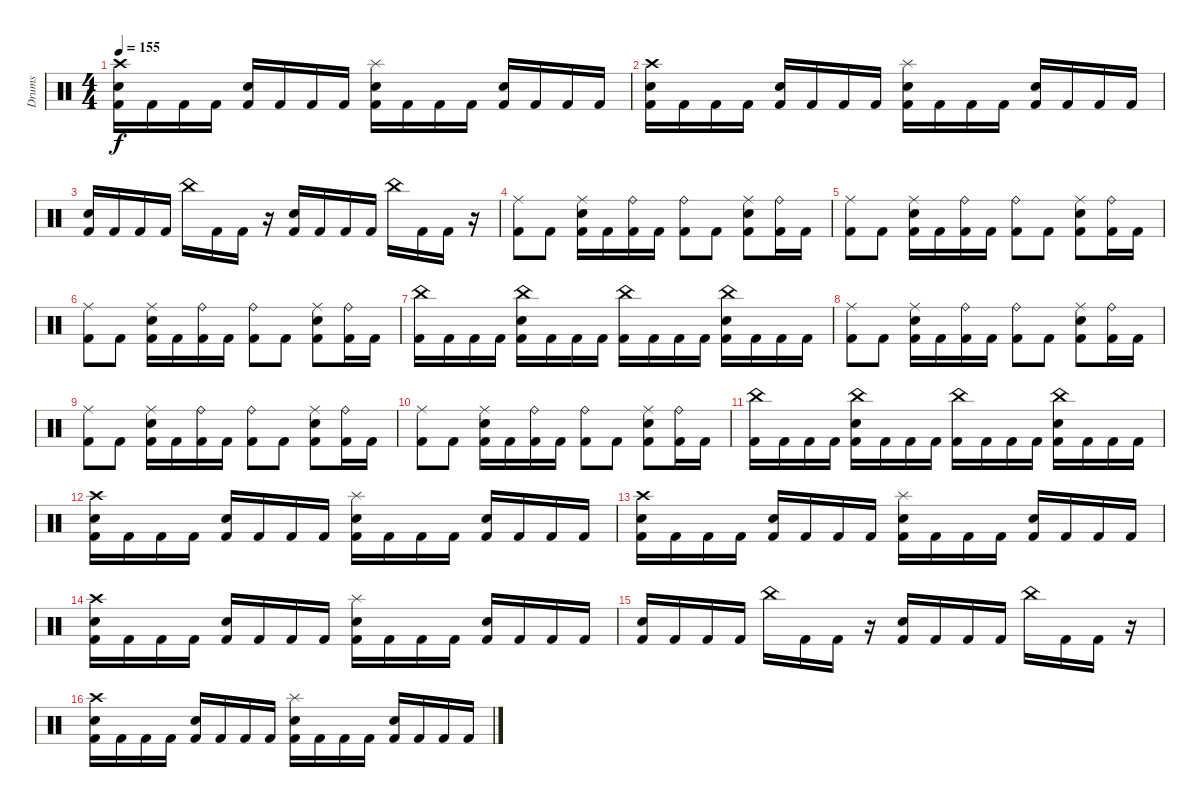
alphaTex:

\track ("Drums" "Drums") {instrument percussion}
\staff {score}
\articulation defaults
\ts (4 4)
\tempo 155
\clef neutral
\ks c
("Crash high (hit)" "Snare (hit) 2" "Kick (hit) 2").16{dy f} "Kick (hit) 2".16 "Kick (hit) 2".16 "Kick (hit) 2".16 ("Snare (hit) 2" "Kick (hit) 2").16 "Kick (hit) 2".16 "Kick (hit) 2".16 "Kick (hit) 2".16 ("Splash (hit)" "Snare (hit) 2" "Kick (hit) 2").16 "Kick (hit) 2".16 "Kick (hit) 2".16 "Kick (hit) 2".16 ("Snare (hit) 2" "Kick (hit) 2").16 "Kick (hit) 2".16 "Kick (hit) 2".16 "Kick (hit) 2".16 |
("Crash high (hit)" "Snare (hit) 2" "Kick (hit) 2").16 "Kick (hit) 2".16 "Kick (hit) 2".16 "Kick (hit) 2".16 ("Snare (hit) 2" "Kick (hit) 2").16 "Kick (hit) 2".16 "Kick (hit) 2".16 "Kick (hit) 2".16 ("Splash (hit)" "Snare (hit) 2" "Kick (hit) 2").16 "Kick (hit) 2".16 "Kick (hit) 2".16 "Kick (hit) 2".16 ("Snare (hit) 2" "Kick (hit) 2").16 "Kick (hit) 2".16 "Kick (hit) 2".16 "Kick (hit) 2".16 |
("Snare (hit) 2" "Kick (hit) 2").16 "Kick (hit) 2".16 "Kick (hit) 2".16 "Kick (hit) 2".16 "China (hit)".16 "Kick (hit) 2".16 "Kick (hit) 2".16 r.16 ("Snare (hit) 2" "Kick (hit) 2").16 "Kick (hit) 2".16 "Kick (hit) 2".16 "Kick (hit) 2".16 "China (hit)".16 "Kick (hit) 2".16 "Kick (hit) 2".16 r.16 |
("Ride (middle)" "Kick (hit) 2").8 "Kick (hit) 2".8 ("Ride (middle)" "Snare (hit) 2" "Kick (hit) 2").16 "Kick (hit) 2".16 ("Ride (bell)" "Kick (hit) 2").16 "Kick (hit) 2".16 ("Ride (bell)" "Kick (hit) 2").8 "Kick (hit) 2".8 ("Ride (middle)" "Snare (hit) 2" "Kick (hit) 2").8 ("Ride (bell)" "Kick (hit) 2").16 "Kick (hit) 2".16 |
("Ride (middle)" "Kick (hit) 2").8 "Kick (hit) 2".8 ("Ride (middle)" "Snare (hit) 2" "Kick (hit) 2").16 "Kick (hit) 2".16 ("Ride (bell)" "Kick (hit) 2").16 "Kick (hit) 2".16 ("Ride (bell)" "Kick (hit) 2").8 "Kick (hit) 2".8 ("Ride (middle)" "Snare (hit) 2" "Kick (hit) 2").8 ("Ride (bell)" "Kick (hit) 2").16 "Kick (hit) 2".16 |
("Ride (middle)" "Kick (hit) 2").8 "Kick (hit) 2".8 ("Ride (middle)" "Snare (hit) 2" "Kick (hit) 2").16 "Kick (hit) 2".16 ("Ride (bell)" "Kick (hit) 2").16 "Kick (hit) 2".16 ("Ride (bell)" "Kick (hit) 2").8 "Kick (hit) 2".8 ("Ride (middle)" "Snare (hit) 2" "Kick (hit) 2").8 ("Ride (bell)" "Kick (hit) 2").16 "Kick (hit) 2".16 |
("China (hit)" "Kick (hit) 2").16 "Kick (hit) 2".16 "Kick (hit) 2".16 "Kick (hit) 2".16 ("China (hit)" "Snare (hit) 2" "Kick (hit) 2").16 "Kick (hit) 2".16 "Kick (hit) 2".16 "Kick (hit) 2".16 ("China (hit)" "Kick (hit) 2").16 "Kick (hit) 2".16 "Kick (hit) 2".16 "Kick (hit) 2".16 ("China (hit)" "Snare (hit) 2" "Kick (hit) 2").16 "Kick (hit) 2".16 "Kick (hit) 2".16 "Kick (hit) 2".16 |
("Ride (middle)" "Kick (hit) 2").8 "Kick (hit) 2".8 ("Ride (middle)" "Snare (hit) 2" "Kick (hit) 2").16 "Kick (hit) 2".16 ("Ride (bell)" "Kick (hit) 2").16 "Kick (hit) 2".16 ("Ride (bell)" "Kick (hit) 2").8 "Kick (hit) 2".8 ("Ride (middle)" "Snare (hit) 2" "Kick (hit) 2").8 ("Ride (bell)" "Kick (hit) 2").16 "Kick (hit) 2".16 |
("Ride (middle)" "Kick (hit) 2").8 "Kick (hit) 2".8 ("Ride (middle)" "Snare (hit) 2" "Kick (hit) 2").16 "Kick (hit) 2".16 ("Ride (bell)" "Kick (hit) 2").16 "Kick (hit) 2".16 ("Ride (bell)" "Kick (hit) 2").8 "Kick (hit) 2".8 ("Ride (middle)" "Snare (hit) 2" "Kick (hit) 2").8 ("Ride (bell)" "Kick (hit) 2").16 "Kick (hit) 2".16 |
("Ride (middle)" "Kick (hit) 2").8 "Kick (hit) 2".8 ("Ride (middle)" "Snare (hit) 2" "Kick (hit) 2").16 "Kick (hit) 2".16 ("Ride (bell)" "Kick (hit) 2").16 "Kick (hit) 2".16 ("Ride (bell)" "Kick (hit) 2").8 "Kick (hit) 2".8 ("Ride (middle)" "Snare (hit) 2" "Kick (hit) 2").8 ("Ride (bell)" "Kick (hit) 2").16 "Kick (hit) 2".16 |
("China (hit)" "Kick (hit) 2").16 "Kick (hit) 2".16 "Kick (hit) 2".16 "Kick (hit) 2".16 ("China (hit)" "Snare (hit) 2" "Kick (hit) 2").16 "Kick (hit) 2".16 "Kick (hit) 2".16 "Kick (hit) 2".16 ("China (hit)" "Kick (hit) 2").16 "Kick (hit) 2".16 "Kick (hit) 2".16 "Kick (hit) 2".16 ("China (hit)" "Snare (hit) 2" "Kick (hit) 2").16 "Kick (hit) 2".16 "Kick (hit) 2".16 "Kick (hit) 2".16 |
("Crash high (hit)" "Snare (hit) 2" "Kick (hit) 2").16 "Kick (hit) 2".16 "Kick (hit) 2".16 "Kick (hit) 2".16 ("Snare (hit) 2" "Kick (hit) 2").16 "Kick (hit) 2".16 "Kick (hit) 2".16 "Kick (hit) 2".16 ("Splash (hit)" "Snare (hit) 2" "Kick (hit) 2").16 "Kick (hit) 2".16 "Kick (hit) 2".16 "Kick (hit) 2".16 ("Snare (hit) 2" "Kick (hit) 2").16 "Kick (hit) 2".16 "Kick (hit) 2".16 "Kick (hit) 2".16 |
("Crash high (hit)" "Snare (hit) 2" "Kick (hit) 2").16 "Kick (hit) 2".16 "Kick (hit) 2".16 "Kick (hit) 2".16 ("Snare (hit) 2" "Kick (hit) 2").16 "Kick (hit) 2".16 "Kick (hit) 2".16 "Kick (hit) 2".16 ("Splash (hit)" "Snare (hit) 2" "Kick (hit) 2").16 "Kick (hit) 2".16 "Kick (hit) 2".16 "Kick (hit) 2".16 ("Snare (hit) 2" "Kick (hit) 2").16 "Kick (hit) 2".16 "Kick (hit) 2".16 "Kick (hit) 2".16 |
("Crash high (hit)" "Snare (hit) 2" "Kick (hit) 2").16 "Kick (hit) 2".16 "Kick (hit) 2".16 "Kick (hit) 2".16 ("Snare (hit) 2" "Kick (hit) 2").16 "Kick (hit) 2".16 "Kick (hit) 2".16 "Kick (hit) 2".16 ("Splash (hit)" "Snare (hit) 2" "Kick (hit) 2").16 "Kick (hit) 2".16 "Kick (hit) 2".16 "Kick (hit) 2".16 ("Snare (hit) 2" "Kick (hit) 2").16 "Kick (hit) 2".16 "Kick (hit) 2".16 "Kick (hit) 2".16 |
("Snare (hit) 2" "Kick (hit) 2").16 "Kick (hit) 2".16 "Kick (hit) 2".16 "Kick (hit) 2".16 "China (hit)".16 "Kick (hit) 2".16 "Kick (hit) 2".16 r.16 ("Snare (hit) 2" "Kick (hit) 2").16 "Kick (hit) 2".16 "Kick (hit) 2".16 "Kick (hit) 2".16 "China (hit)".16 "Kick (hit) 2".16 "Kick (hit) 2".16 r.16 |
("Crash high (hit)" "Snare (hit) 2" "Kick (hit) 2").16 "Kick (hit) 2".16 "Kick (hit) 2".16 "Kick (hit) 2".16 ("Snare (hit) 2" "Kick (hit) 2").16 "Kick (hit) 2".16 "Kick (hit) 2".16 "Kick (hit) 2".16 ("Splash (hit)" "Snare (hit) 2" "Kick (hit) 2").16 "Kick (hit) 2".16 "Kick (hit) 2".16 "Kick (hit) 2".16 ("Snare (hit) 2" "Kick (hit) 2").16 "Kick (hit) 2".16 "Kick (hit) 2".16 "Kick (hit) 2".16
